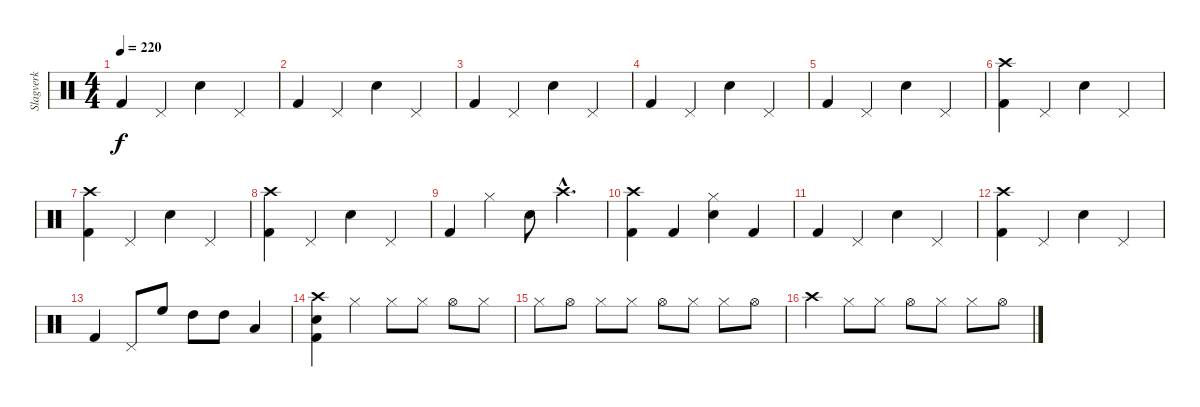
\track ("Slagverk" "Slagverk") {instrument percussion}
\staff {score}
\articulation defaults
\ts (4 4)
\tempo 220
\clef neutral
\ks c "Kick (hit) 2".4{dy f} "Pedal Hi-Hat (hit)".4 "Snare (hit) 2".4 "Pedal Hi-Hat (hit)".4
|
"Kick (hit) 2".4 "Pedal Hi-Hat (hit)".4 "Snare (hit) 2".4 "Pedal Hi-Hat (hit)".4 |
"Kick (hit) 2".4 "Pedal Hi-Hat (hit)".4 "Snare (hit) 2".4 "Pedal Hi-Hat (hit)".4 |
"Kick (hit) 2".4 "Pedal Hi-Hat (hit)".4 "Snare (hit) 2".4 "Pedal Hi-Hat (hit)".4 |
"Kick (hit) 2".4 "Pedal Hi-Hat (hit)".4 "Snare (hit) 2".4 "Pedal Hi-Hat (hit)".4 |
("Crash high (hit)" "Kick (hit) 2").4 "Pedal Hi-Hat (hit)".4 "Snare (hit) 2".4 "Pedal Hi-Hat (hit)".4 |
("Crash high (hit)" "Kick (hit) 2").4 "Pedal Hi-Hat (hit)".4 "Snare (hit) 2".4 "Pedal Hi-Hat (hit)".4 |
("Crash high (hit)" "Kick (hit) 2").4 "Pedal Hi-Hat (hit)".4 "Snare (hit) 2".4 "Pedal Hi-Hat (hit)".4 |
"Kick (hit) 2".4 "Hi-Hat (closed)".4 "Snare (hit) 2".8 "Crash high (hit)"{hac}.4{d} |
("Crash high (hit)" "Kick (hit) 2").4 "Kick (hit) 2".4 ("Hi-Hat (closed)" "Snare (hit) 2").4 "Kick (hit) 2".4 |
"Kick (hit) 2".4 "Pedal Hi-Hat (hit)".4 "Snare (hit) 2".4 "Pedal Hi-Hat (hit)".4 |
("Crash high (hit)" "Kick (hit) 2").4 "Pedal Hi-Hat (hit)".4 "Snare (hit) 2".4 "Pedal Hi-Hat (hit)".4 |
"Kick (hit) 2".4 "Pedal Hi-Hat (hit)".8 "High Floor Tom (hit)".8 "High Tom (hit)".8 "High Tom (hit)".8 "Low Tom (hit)".4 |
("Crash high (hit)" "Kick (hit) 2" "Snare (hit) 2").4 "Hi-Hat (closed)".4 "Hi-Hat (closed)".8 "Hi-Hat (closed)".8 "Hi-Hat (open)".8 "Hi-Hat (closed)".8 |
"Hi-Hat (closed)".8 "Hi-Hat (open)".8 "Hi-Hat (closed)".8 "Hi-Hat (closed)".8 "Hi-Hat (open)".8 "Hi-Hat (closed)".8 "Hi-Hat (closed)".8 "Hi-Hat (open)".8 |
"Crash high (hit)".4 "Hi-Hat (closed)".8 "Hi-Hat (closed)".8 "Hi-Hat (open)".8 "Hi-Hat (closed)".8 "Hi-Hat (closed)".8 "Hi-Hat (open)".8
